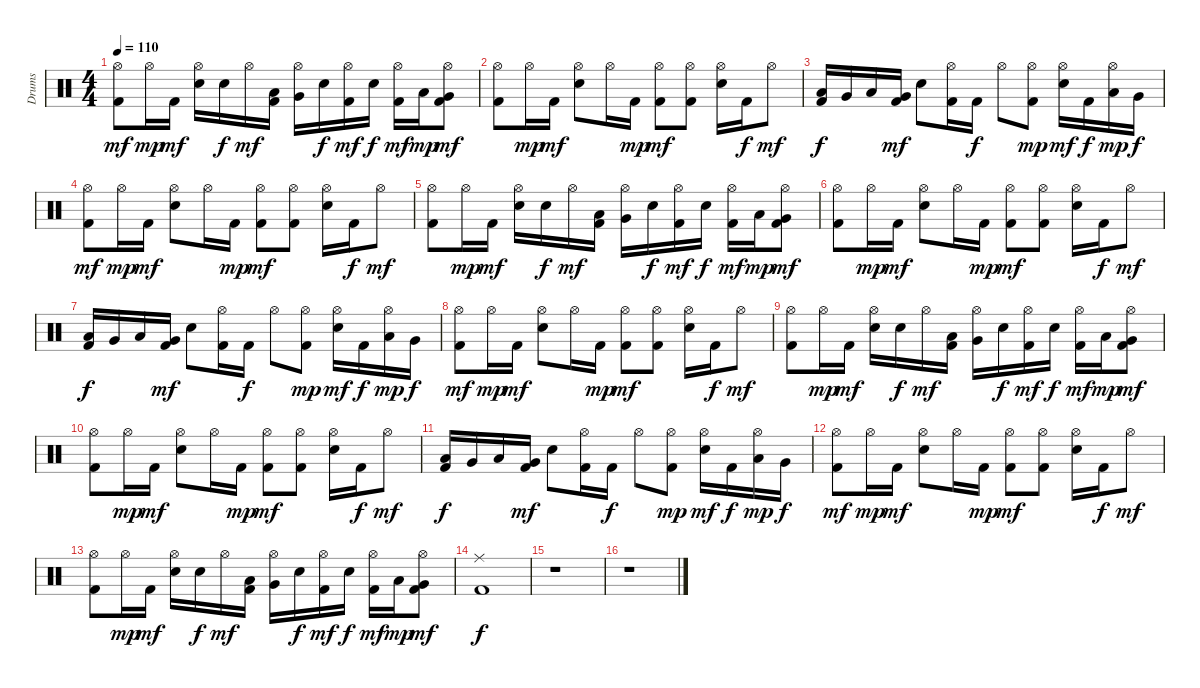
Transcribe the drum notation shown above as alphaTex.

\track ("Drums" "Drums") {instrument percussion}
\staff {score}
\articulation defaults
\ts (4 4)
\tempo 110
\clef neutral
\ks c
("Hi-Hat (open)" "Kick (hit) 2").8{dy mf} "Hi-Hat (open)".16{dy mp} "Kick (hit) 2".16{dy mf} ("Hi-Hat (open)" "Electric Snare (hit)").16 "Electric Snare (hit)".16{dy f} "Hi-Hat (open)".16{dy mf} ("Low Tom (hit)" "Kick (hit) 2").16 ("Hi-Hat (open)" "Very Low Tom (hit)").16 "Electric Snare (hit)".16{dy f} ("Hi-Hat (open)" "Kick (hit) 2").16{dy mf} "Electric Snare (hit)".16{dy f} ("Hi-Hat (open)" "Kick (hit) 2").16{dy mf} "Low Tom (hit)".16{dy mp} ("Hi-Hat (open)" "Very Low Tom (hit)" "Kick (hit) 2").8{dy mf} |
("Hi-Hat (open)" "Kick (hit) 2").8 "Hi-Hat (open)".16{dy mp} "Kick (hit) 2".16{dy mf} ("Hi-Hat (open)" "Electric Snare (hit)").8 "Hi-Hat (open)".16 "Kick (hit) 2".16{dy mp} ("Hi-Hat (open)" "Kick (hit) 2").8{dy mf} ("Hi-Hat (open)" "Kick (hit) 2").8 ("Hi-Hat (open)" "Electric Snare (hit)").16 "Kick (hit) 2".16{dy f} "Hi-Hat (open)".8{dy mf} |
("Low Tom (hit)" "Kick (hit) 2").16{dy f} "Very Low Tom (hit)".16 "Low Tom (hit)".16 ("Very Low Tom (hit)" "Kick (hit) 2").16{dy mf} "Electric Snare (hit)".8 ("Hi-Hat (open)" "Kick (hit) 2").16 "Kick (hit) 2".16{dy f} "Hi-Hat (open)".8 ("Hi-Hat (open)" "Kick (hit) 2").8{dy mp} ("Hi-Hat (open)" "Electric Snare (hit)").16{dy mf} "Kick (hit) 2".16{dy f} ("Hi-Hat (open)" "Low Tom (hit)").16{dy mp} "Very Low Tom (hit)".16{dy f} |
("Hi-Hat (open)" "Kick (hit) 2").8{dy mf} "Hi-Hat (open)".16{dy mp} "Kick (hit) 2".16{dy mf} ("Hi-Hat (open)" "Electric Snare (hit)").8 "Hi-Hat (open)".16 "Kick (hit) 2".16{dy mp} ("Hi-Hat (open)" "Kick (hit) 2").8{dy mf} ("Hi-Hat (open)" "Kick (hit) 2").8 ("Hi-Hat (open)" "Electric Snare (hit)").16 "Kick (hit) 2".16{dy f} "Hi-Hat (open)".8{dy mf} |
("Hi-Hat (open)" "Kick (hit) 2").8 "Hi-Hat (open)".16{dy mp} "Kick (hit) 2".16{dy mf} ("Hi-Hat (open)" "Electric Snare (hit)").16 "Electric Snare (hit)".16{dy f} "Hi-Hat (open)".16{dy mf} ("Low Tom (hit)" "Kick (hit) 2").16 ("Hi-Hat (open)" "Very Low Tom (hit)").16 "Electric Snare (hit)".16{dy f} ("Hi-Hat (open)" "Kick (hit) 2").16{dy mf} "Electric Snare (hit)".16{dy f} ("Hi-Hat (open)" "Kick (hit) 2").16{dy mf} "Low Tom (hit)".16{dy mp} ("Hi-Hat (open)" "Very Low Tom (hit)" "Kick (hit) 2").8{dy mf} |
("Hi-Hat (open)" "Kick (hit) 2").8 "Hi-Hat (open)".16{dy mp} "Kick (hit) 2".16{dy mf} ("Hi-Hat (open)" "Electric Snare (hit)").8 "Hi-Hat (open)".16 "Kick (hit) 2".16{dy mp} ("Hi-Hat (open)" "Kick (hit) 2").8{dy mf} ("Hi-Hat (open)" "Kick (hit) 2").8 ("Hi-Hat (open)" "Electric Snare (hit)").16 "Kick (hit) 2".16{dy f} "Hi-Hat (open)".8{dy mf} |
("Low Tom (hit)" "Kick (hit) 2").16{dy f} "Very Low Tom (hit)".16 "Low Tom (hit)".16 ("Very Low Tom (hit)" "Kick (hit) 2").16{dy mf} "Electric Snare (hit)".8 ("Hi-Hat (open)" "Kick (hit) 2").16 "Kick (hit) 2".16{dy f} "Hi-Hat (open)".8 ("Hi-Hat (open)" "Kick (hit) 2").8{dy mp} ("Hi-Hat (open)" "Electric Snare (hit)").16{dy mf} "Kick (hit) 2".16{dy f} ("Hi-Hat (open)" "Low Tom (hit)").16{dy mp} "Very Low Tom (hit)".16{dy f} |
("Hi-Hat (open)" "Kick (hit) 2").8{dy mf} "Hi-Hat (open)".16{dy mp} "Kick (hit) 2".16{dy mf} ("Hi-Hat (open)" "Electric Snare (hit)").8 "Hi-Hat (open)".16 "Kick (hit) 2".16{dy mp} ("Hi-Hat (open)" "Kick (hit) 2").8{dy mf} ("Hi-Hat (open)" "Kick (hit) 2").8 ("Hi-Hat (open)" "Electric Snare (hit)").16 "Kick (hit) 2".16{dy f} "Hi-Hat (open)".8{dy mf} |
("Hi-Hat (open)" "Kick (hit) 2").8 "Hi-Hat (open)".16{dy mp} "Kick (hit) 2".16{dy mf} ("Hi-Hat (open)" "Electric Snare (hit)").16 "Electric Snare (hit)".16{dy f} "Hi-Hat (open)".16{dy mf} ("Low Tom (hit)" "Kick (hit) 2").16 ("Hi-Hat (open)" "Very Low Tom (hit)").16 "Electric Snare (hit)".16{dy f} ("Hi-Hat (open)" "Kick (hit) 2").16{dy mf} "Electric Snare (hit)".16{dy f} ("Hi-Hat (open)" "Kick (hit) 2").16{dy mf} "Low Tom (hit)".16{dy mp} ("Hi-Hat (open)" "Very Low Tom (hit)" "Kick (hit) 2").8{dy mf} |
("Hi-Hat (open)" "Kick (hit) 2").8 "Hi-Hat (open)".16{dy mp} "Kick (hit) 2".16{dy mf} ("Hi-Hat (open)" "Electric Snare (hit)").8 "Hi-Hat (open)".16 "Kick (hit) 2".16{dy mp} ("Hi-Hat (open)" "Kick (hit) 2").8{dy mf} ("Hi-Hat (open)" "Kick (hit) 2").8 ("Hi-Hat (open)" "Electric Snare (hit)").16 "Kick (hit) 2".16{dy f} "Hi-Hat (open)".8{dy mf} |
("Low Tom (hit)" "Kick (hit) 2").16{dy f} "Very Low Tom (hit)".16 "Low Tom (hit)".16 ("Very Low Tom (hit)" "Kick (hit) 2").16{dy mf} "Electric Snare (hit)".8 ("Hi-Hat (open)" "Kick (hit) 2").16 "Kick (hit) 2".16{dy f} "Hi-Hat (open)".8 ("Hi-Hat (open)" "Kick (hit) 2").8{dy mp} ("Hi-Hat (open)" "Electric Snare (hit)").16{dy mf} "Kick (hit) 2".16{dy f} ("Hi-Hat (open)" "Low Tom (hit)").16{dy mp} "Very Low Tom (hit)".16{dy f} |
("Hi-Hat (open)" "Kick (hit) 2").8{dy mf} "Hi-Hat (open)".16{dy mp} "Kick (hit) 2".16{dy mf} ("Hi-Hat (open)" "Electric Snare (hit)").8 "Hi-Hat (open)".16 "Kick (hit) 2".16{dy mp} ("Hi-Hat (open)" "Kick (hit) 2").8{dy mf} ("Hi-Hat (open)" "Kick (hit) 2").8 ("Hi-Hat (open)" "Electric Snare (hit)").16 "Kick (hit) 2".16{dy f} "Hi-Hat (open)".8{dy mf} |
("Hi-Hat (open)" "Kick (hit) 2").8 "Hi-Hat (open)".16{dy mp} "Kick (hit) 2".16{dy mf} ("Hi-Hat (open)" "Electric Snare (hit)").16 "Electric Snare (hit)".16{dy f} "Hi-Hat (open)".16{dy mf} ("Low Tom (hit)" "Kick (hit) 2").16 ("Hi-Hat (open)" "Very Low Tom (hit)").16 "Electric Snare (hit)".16{dy f} ("Hi-Hat (open)" "Kick (hit) 2").16{dy mf} "Electric Snare (hit)".16{dy f} ("Hi-Hat (open)" "Kick (hit) 2").16{dy mf} "Low Tom (hit)".16{dy mp} ("Hi-Hat (open)" "Very Low Tom (hit)" "Kick (hit) 2").8{dy mf} |
("Ride (middle)" "Kick (hit) 2").1{dy f} |
r.1 |
r.1
